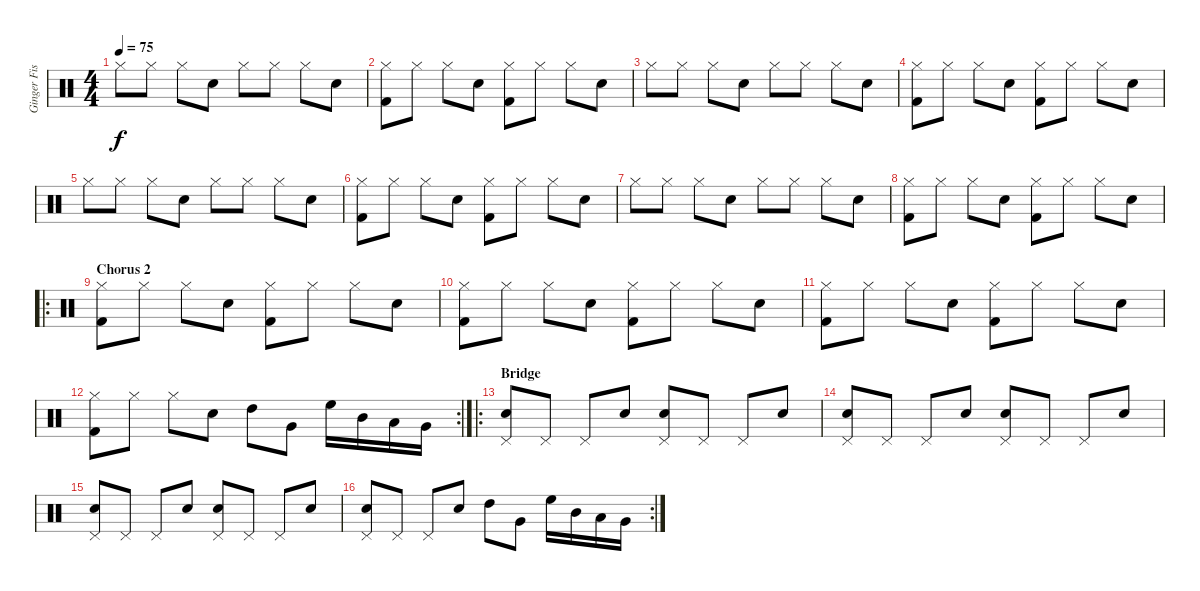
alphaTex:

\track ("Ginger Fish" "Ginger Fis") {instrument percussion}
\staff {score}
\articulation defaults
\ts (4 4)
\tempo 75
\clef neutral
\ks c "Hi-Hat (closed)".8{dy f} "Hi-Hat (closed)".8 "Hi-Hat (closed)".8 "Snare (hit) 2".8 "Hi-Hat (closed)".8 "Hi-Hat (closed)".8 "Hi-Hat (closed)".8 "Snare (hit) 2".8
|
("Hi-Hat (closed)" "Kick (hit) 2").8 "Hi-Hat (closed)".8 "Hi-Hat (closed)".8 "Snare (hit) 2".8 ("Hi-Hat (closed)" "Kick (hit) 2").8 "Hi-Hat (closed)".8 "Hi-Hat (closed)".8 "Snare (hit) 2".8 |
"Hi-Hat (closed)".8 "Hi-Hat (closed)".8 "Hi-Hat (closed)".8 "Snare (hit) 2".8 "Hi-Hat (closed)".8 "Hi-Hat (closed)".8 "Hi-Hat (closed)".8 "Snare (hit) 2".8 |
("Hi-Hat (closed)" "Kick (hit) 2").8 "Hi-Hat (closed)".8 "Hi-Hat (closed)".8 "Snare (hit) 2".8 ("Hi-Hat (closed)" "Kick (hit) 2").8 "Hi-Hat (closed)".8 "Hi-Hat (closed)".8 "Snare (hit) 2".8 |
"Hi-Hat (closed)".8 "Hi-Hat (closed)".8 "Hi-Hat (closed)".8 "Snare (hit) 2".8 "Hi-Hat (closed)".8 "Hi-Hat (closed)".8 "Hi-Hat (closed)".8 "Snare (hit) 2".8 |
("Hi-Hat (closed)" "Kick (hit) 2").8 "Hi-Hat (closed)".8 "Hi-Hat (closed)".8 "Snare (hit) 2".8 ("Hi-Hat (closed)" "Kick (hit) 2").8 "Hi-Hat (closed)".8 "Hi-Hat (closed)".8 "Snare (hit) 2".8 |
"Hi-Hat (closed)".8 "Hi-Hat (closed)".8 "Hi-Hat (closed)".8 "Snare (hit) 2".8 "Hi-Hat (closed)".8 "Hi-Hat (closed)".8 "Hi-Hat (closed)".8 "Snare (hit) 2".8 |
("Hi-Hat (closed)" "Kick (hit) 2").8 "Hi-Hat (closed)".8 "Hi-Hat (closed)".8 "Snare (hit) 2".8 ("Hi-Hat (closed)" "Kick (hit) 2").8 "Hi-Hat (closed)".8 "Hi-Hat (closed)".8 "Snare (hit) 2".8 |
\ro
\section ("" "Chorus 2")
("Hi-Hat (closed)" "Kick (hit) 2").8 "Hi-Hat (closed)".8 "Hi-Hat (closed)".8 "Snare (hit) 2".8 ("Hi-Hat (closed)" "Kick (hit) 2").8 "Hi-Hat (closed)".8 "Hi-Hat (closed)".8 "Snare (hit) 2".8 |
("Hi-Hat (closed)" "Kick (hit) 2").8 "Hi-Hat (closed)".8 "Hi-Hat (closed)".8 "Snare (hit) 2".8 ("Hi-Hat (closed)" "Kick (hit) 2").8 "Hi-Hat (closed)".8 "Hi-Hat (closed)".8 "Snare (hit) 2".8 |
("Hi-Hat (closed)" "Kick (hit) 2").8 "Hi-Hat (closed)".8 "Hi-Hat (closed)".8 "Snare (hit) 2".8 ("Hi-Hat (closed)" "Kick (hit) 2").8 "Hi-Hat (closed)".8 "Hi-Hat (closed)".8 "Snare (hit) 2".8 |
\rc 2
("Hi-Hat (closed)" "Kick (hit) 2").8 "Hi-Hat (closed)".8 "Hi-Hat (closed)".8 "Snare (hit) 2".8 "High Tom (hit)".8 "Very Low Tom (hit)".8 "High Floor Tom (hit)".16 "Mid Tom (hit)".16 "Low Tom (hit)".16 "Very Low Tom (hit)".16 |
\ro
\section ("" "Bridge")
("Snare (hit) 2" "Pedal Hi-Hat (hit)").8 "Pedal Hi-Hat (hit)".8 "Pedal Hi-Hat (hit)".8 "Electric Snare (hit)".8 ("Snare (hit) 2" "Pedal Hi-Hat (hit)").8 "Pedal Hi-Hat (hit)".8 "Pedal Hi-Hat (hit)".8 "Electric Snare (hit)".8 |
("Snare (hit) 2" "Pedal Hi-Hat (hit)").8 "Pedal Hi-Hat (hit)".8 "Pedal Hi-Hat (hit)".8 "Electric Snare (hit)".8 ("Snare (hit) 2" "Pedal Hi-Hat (hit)").8 "Pedal Hi-Hat (hit)".8 "Pedal Hi-Hat (hit)".8 "Electric Snare (hit)".8 |
("Snare (hit) 2" "Pedal Hi-Hat (hit)").8 "Pedal Hi-Hat (hit)".8 "Pedal Hi-Hat (hit)".8 "Electric Snare (hit)".8 ("Snare (hit) 2" "Pedal Hi-Hat (hit)").8 "Pedal Hi-Hat (hit)".8 "Pedal Hi-Hat (hit)".8 "Electric Snare (hit)".8 |
\rc 2
("Snare (hit) 2" "Pedal Hi-Hat (hit)").8 "Pedal Hi-Hat (hit)".8 "Pedal Hi-Hat (hit)".8 "Electric Snare (hit)".8 "High Tom (hit)".8 "Very Low Tom (hit)".8 "High Floor Tom (hit)".16 "Mid Tom (hit)".16 "Low Tom (hit)".16 "Very Low Tom (hit)".16
